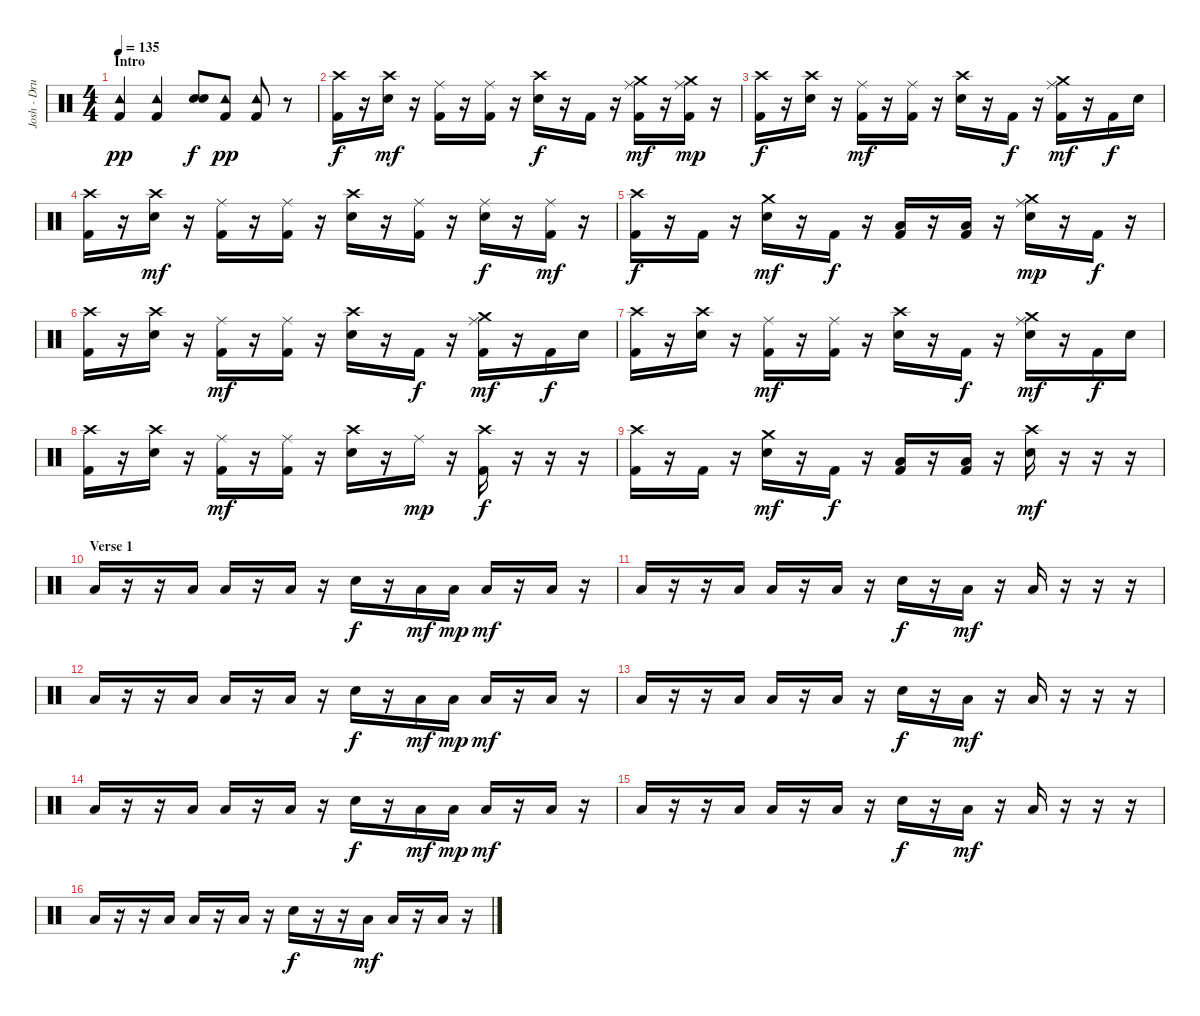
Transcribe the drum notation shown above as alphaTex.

\track ("Josh - Drums" "Josh - Dru") {instrument percussion}
\staff {score}
\articulation defaults
\ts (4 4)
\section ("" "Intro")
\tempo 135
\clef neutral
\ks c
("Tambourine (hit)" "Kick (hit) 2").4{dy pp} ("Tambourine (hit)" "Kick (hit) 2").4 ("Electric Snare (hit)" "Electric Snare (hit)").8{bd 480 dy f} ("Tambourine (hit)" "Kick (hit) 2").8{dy pp} ("Tambourine (hit)" "Kick (hit) 2").8 r.8 |
("Crash high (hit)" "Kick (hit) 2").16{dy f} r.16 ("Crash high (hit)" "Electric Snare (hit)").16{dy mf} r.16 ("Ride (middle)" "Kick (hit) 2").16 r.16 ("Ride (middle)" "Kick (hit) 2").16 r.16 ("Crash high (hit)" "Electric Snare (hit)").16{dy f} r.16 "Kick (hit) 2".16 r.16 ("Crash medium (hit)" "Ride (middle)" "Kick (hit) 2").16{dy mf} r.16 ("Crash medium (hit)" "Ride (middle)" "Kick (hit) 2").16{dy mp} r.16 |
("Crash high (hit)" "Kick (hit) 2").16{dy f} r.16 ("Crash high (hit)" "Electric Snare (hit)").16 r.16 ("Ride (middle)" "Kick (hit) 2").16{dy mf} r.16 ("Ride (middle)" "Kick (hit) 2").16 r.16 ("Crash high (hit)" "Electric Snare (hit)").16 r.16 "Kick (hit) 2".16{dy f} r.16 ("Crash medium (hit)" "Ride (middle)" "Kick (hit) 2").16{dy mf} r.16 "Kick (hit) 2".16{dy f} "Electric Snare (hit)".16 |
("Crash high (hit)" "Kick (hit) 2").16 r.16 ("Crash high (hit)" "Electric Snare (hit)").16{dy mf} r.16 ("Ride (middle)" "Kick (hit) 2").16 r.16 ("Ride (middle)" "Kick (hit) 2").16 r.16 ("Crash high (hit)" "Electric Snare (hit)").16 r.16 ("Ride (middle)" "Kick (hit) 2").16 r.16 ("Ride (middle)" "Electric Snare (hit)").16{dy f} r.16 ("Ride (middle)" "Kick (hit) 2").16{dy mf} r.16 |
("Crash high (hit)" "Kick (hit) 2").16{dy f} r.16 "Kick (hit) 2".16 r.16 ("Crash medium (hit)" "Electric Snare (hit)").16{dy mf} r.16 "Kick (hit) 2".16{dy f} r.16 ("Low Floor Tom (hit)" "Kick (hit) 2").16 r.16 ("Low Floor Tom (hit)" "Kick (hit) 2").16 r.16 ("Crash medium (hit)" "Ride (middle)" "Electric Snare (hit)").16{dy mp} r.16 "Kick (hit) 2".16{dy f} r.16 |
("Crash high (hit)" "Kick (hit) 2").16 r.16 ("Crash high (hit)" "Electric Snare (hit)").16 r.16 ("Ride (middle)" "Kick (hit) 2").16{dy mf} r.16 ("Ride (middle)" "Kick (hit) 2").16 r.16 ("Crash high (hit)" "Electric Snare (hit)").16 r.16 "Kick (hit) 2".16{dy f} r.16 ("Crash medium (hit)" "Ride (middle)" "Kick (hit) 2").16{dy mf} r.16 "Kick (hit) 2".16{dy f} "Electric Snare (hit)".16 |
("Crash high (hit)" "Kick (hit) 2").16 r.16 ("Crash high (hit)" "Electric Snare (hit)").16 r.16 ("Ride (middle)" "Kick (hit) 2").16{dy mf} r.16 ("Ride (middle)" "Kick (hit) 2").16 r.16 ("Crash high (hit)" "Electric Snare (hit)").16 r.16 "Kick (hit) 2".16{dy f} r.16 ("Crash medium (hit)" "Ride (middle)" "Electric Snare (hit)").16{dy mf} r.16 "Kick (hit) 2".16{dy f} "Electric Snare (hit)".16 |
("Crash high (hit)" "Kick (hit) 2").16 r.16 ("Crash high (hit)" "Electric Snare (hit)").16 r.16 ("Ride (middle)" "Kick (hit) 2").16{dy mf} r.16 ("Ride (middle)" "Kick (hit) 2").16 r.16 ("Crash high (hit)" "Electric Snare (hit)").16 r.16 "Ride (middle)".16{dy mp} r.16 ("Crash high (hit)" "Kick (hit) 2").16{dy f} r.16 r.16 r.16 |
("Crash high (hit)" "Kick (hit) 2").16 r.16 "Kick (hit) 2".16 r.16 ("Crash medium (hit)" "Electric Snare (hit)").16{dy mf} r.16 "Kick (hit) 2".16{dy f} r.16 ("Low Floor Tom (hit)" "Kick (hit) 2").16 r.16 ("Low Floor Tom (hit)" "Kick (hit) 2").16 r.16 ("Crash high (hit)" "Electric Snare (hit)").16{dy mf} r.16 r.16 r.16 |
\section ("" "Verse 1")
"Low Floor Tom (hit)".16 r.16 r.16 "Low Floor Tom (hit)".16 "Low Floor Tom (hit)".16 r.16 "Low Floor Tom (hit)".16 r.16 "Electric Snare (hit)".16{dy f} r.16 "Low Floor Tom (hit)".16{dy mf} "Low Floor Tom (hit)".16{dy mp} "Low Floor Tom (hit)".16{dy mf} r.16 "Low Floor Tom (hit)".16 r.16 |
"Low Floor Tom (hit)".16 r.16 r.16 "Low Floor Tom (hit)".16 "Low Floor Tom (hit)".16 r.16 "Low Floor Tom (hit)".16 r.16 "Electric Snare (hit)".16{dy f} r.16 "Low Floor Tom (hit)".16{dy mf} r.16 "Low Floor Tom (hit)".16 r.16 r.16 r.16 |
"Low Floor Tom (hit)".16 r.16 r.16 "Low Floor Tom (hit)".16 "Low Floor Tom (hit)".16 r.16 "Low Floor Tom (hit)".16 r.16 "Electric Snare (hit)".16{dy f} r.16 "Low Floor Tom (hit)".16{dy mf} "Low Floor Tom (hit)".16{dy mp} "Low Floor Tom (hit)".16{dy mf} r.16 "Low Floor Tom (hit)".16 r.16 |
"Low Floor Tom (hit)".16 r.16 r.16 "Low Floor Tom (hit)".16 "Low Floor Tom (hit)".16 r.16 "Low Floor Tom (hit)".16 r.16 "Electric Snare (hit)".16{dy f} r.16 "Low Floor Tom (hit)".16{dy mf} r.16 "Low Floor Tom (hit)".16 r.16 r.16 r.16 |
"Low Floor Tom (hit)".16 r.16 r.16 "Low Floor Tom (hit)".16 "Low Floor Tom (hit)".16 r.16 "Low Floor Tom (hit)".16 r.16 "Electric Snare (hit)".16{dy f} r.16 "Low Floor Tom (hit)".16{dy mf} "Low Floor Tom (hit)".16{dy mp} "Low Floor Tom (hit)".16{dy mf} r.16 "Low Floor Tom (hit)".16 r.16 |
"Low Floor Tom (hit)".16 r.16 r.16 "Low Floor Tom (hit)".16 "Low Floor Tom (hit)".16 r.16 "Low Floor Tom (hit)".16 r.16 "Electric Snare (hit)".16{dy f} r.16 "Low Floor Tom (hit)".16{dy mf} r.16 "Low Floor Tom (hit)".16 r.16 r.16 r.16 |
"Low Floor Tom (hit)".16 r.16 r.16 "Low Floor Tom (hit)".16 "Low Floor Tom (hit)".16 r.16 "Low Floor Tom (hit)".16 r.16 "Electric Snare (hit)".16{dy f} r.16 r.16 "Low Floor Tom (hit)".16{dy mf} "Low Floor Tom (hit)".16 r.16 "Low Floor Tom (hit)".16 r.16
